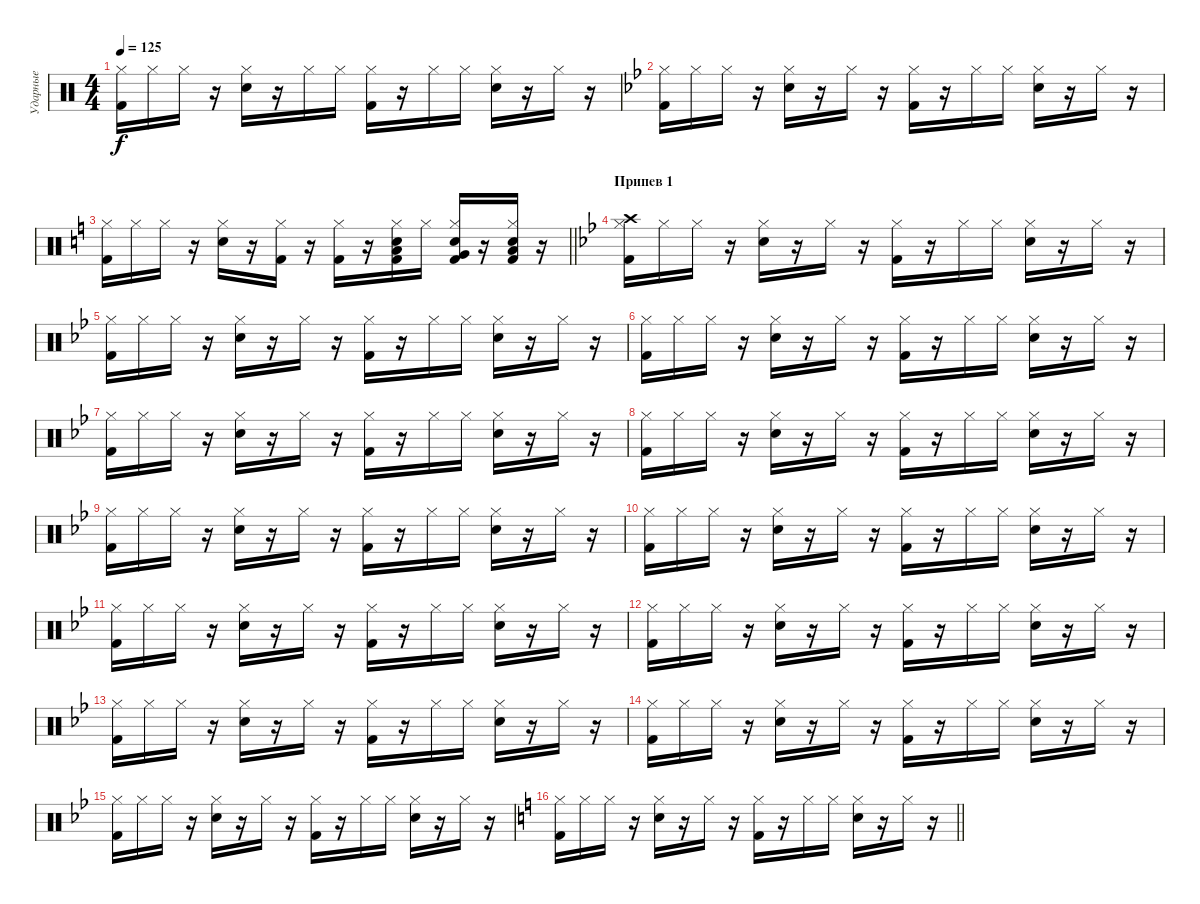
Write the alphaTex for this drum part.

\track ("Ударные" "Ударные") {instrument percussion}
\staff {score}
\articulation defaults
\ts (4 4)
\tempo 125
\clef neutral
\ks c
("Kick (hit) 2" "Hi-Hat (closed)").16{dy f} "Hi-Hat (closed)".16 "Hi-Hat (closed)".16 r.16 ("Snare (hit) 2" "Hi-Hat (closed)").16 r.16 "Hi-Hat (closed)".16 "Hi-Hat (closed)".16 ("Kick (hit) 2" "Hi-Hat (closed)").16 r.16 "Hi-Hat (closed)".16 "Hi-Hat (closed)".16 ("Snare (hit) 2" "Hi-Hat (closed)").16 r.16 "Hi-Hat (closed)".16 r.16 |
\ks bb
("Kick (hit) 2" "Hi-Hat (closed)").16 "Hi-Hat (closed)".16 "Hi-Hat (closed)".16 r.16 ("Snare (hit) 2" "Hi-Hat (closed)").16 r.16 "Hi-Hat (closed)".16 r.16 ("Kick (hit) 2" "Hi-Hat (closed)").16 r.16 "Hi-Hat (closed)".16 "Hi-Hat (closed)".16 ("Snare (hit) 2" "Hi-Hat (closed)").16 r.16 "Hi-Hat (closed)".16 r.16 |
\barLineRight lightlight
\ks c
("Kick (hit) 2" "Hi-Hat (closed)").16 "Hi-Hat (closed)".16 "Hi-Hat (closed)".16 r.16 ("Snare (hit) 2" "Hi-Hat (closed)").16 r.16 ("Kick (hit) 2" "Hi-Hat (closed)").16 r.16 ("Kick (hit) 2" "Hi-Hat (closed)").16 r.16 ("Kick (hit) 2" "Snare (hit) 2" "Low Floor Tom (hit)" "Hi-Hat (closed)").16 "Hi-Hat (closed)".16 ("Kick (hit) 2" "Snare (hit) 2" "Very Low Tom (hit)" "Hi-Hat (closed)").16 r.16 ("Kick (hit) 2" "Snare (hit) 2" "Low Tom (hit)" "Hi-Hat (closed)").16 r.16 |
\section ("" "Припев 1")
\ks bb
("Kick (hit) 2" "Crash high (hit)" "Hi-Hat (closed)").16 "Hi-Hat (closed)".16 "Hi-Hat (closed)".16 r.16 ("Snare (hit) 2" "Hi-Hat (closed)").16 r.16 "Hi-Hat (closed)".16 r.16 ("Kick (hit) 2" "Hi-Hat (closed)").16 r.16 "Hi-Hat (closed)".16 "Hi-Hat (closed)".16 ("Snare (hit) 2" "Hi-Hat (closed)").16 r.16 "Hi-Hat (closed)".16 r.16 |
("Kick (hit) 2" "Hi-Hat (closed)").16 "Hi-Hat (closed)".16 "Hi-Hat (closed)".16 r.16 ("Snare (hit) 2" "Hi-Hat (closed)").16 r.16 "Hi-Hat (closed)".16 r.16 ("Kick (hit) 2" "Hi-Hat (closed)").16 r.16 "Hi-Hat (closed)".16 "Hi-Hat (closed)".16 ("Snare (hit) 2" "Hi-Hat (closed)").16 r.16 "Hi-Hat (closed)".16 r.16 |
("Kick (hit) 2" "Hi-Hat (closed)").16 "Hi-Hat (closed)".16 "Hi-Hat (closed)".16 r.16 ("Snare (hit) 2" "Hi-Hat (closed)").16 r.16 "Hi-Hat (closed)".16 r.16 ("Kick (hit) 2" "Hi-Hat (closed)").16 r.16 "Hi-Hat (closed)".16 "Hi-Hat (closed)".16 ("Snare (hit) 2" "Hi-Hat (closed)").16 r.16 "Hi-Hat (closed)".16 r.16 |
("Kick (hit) 2" "Hi-Hat (closed)").16 "Hi-Hat (closed)".16 "Hi-Hat (closed)".16 r.16 ("Snare (hit) 2" "Hi-Hat (closed)").16 r.16 "Hi-Hat (closed)".16 r.16 ("Kick (hit) 2" "Hi-Hat (closed)").16 r.16 "Hi-Hat (closed)".16 "Hi-Hat (closed)".16 ("Snare (hit) 2" "Hi-Hat (closed)").16 r.16 "Hi-Hat (closed)".16 r.16 |
("Kick (hit) 2" "Hi-Hat (closed)").16 "Hi-Hat (closed)".16 "Hi-Hat (closed)".16 r.16 ("Snare (hit) 2" "Hi-Hat (closed)").16 r.16 "Hi-Hat (closed)".16 r.16 ("Kick (hit) 2" "Hi-Hat (closed)").16 r.16 "Hi-Hat (closed)".16 "Hi-Hat (closed)".16 ("Snare (hit) 2" "Hi-Hat (closed)").16 r.16 "Hi-Hat (closed)".16 r.16 |
("Kick (hit) 2" "Hi-Hat (closed)").16 "Hi-Hat (closed)".16 "Hi-Hat (closed)".16 r.16 ("Snare (hit) 2" "Hi-Hat (closed)").16 r.16 "Hi-Hat (closed)".16 r.16 ("Kick (hit) 2" "Hi-Hat (closed)").16 r.16 "Hi-Hat (closed)".16 "Hi-Hat (closed)".16 ("Snare (hit) 2" "Hi-Hat (closed)").16 r.16 "Hi-Hat (closed)".16 r.16 |
("Kick (hit) 2" "Hi-Hat (closed)").16 "Hi-Hat (closed)".16 "Hi-Hat (closed)".16 r.16 ("Snare (hit) 2" "Hi-Hat (closed)").16 r.16 "Hi-Hat (closed)".16 r.16 ("Kick (hit) 2" "Hi-Hat (closed)").16 r.16 "Hi-Hat (closed)".16 "Hi-Hat (closed)".16 ("Snare (hit) 2" "Hi-Hat (closed)").16 r.16 "Hi-Hat (closed)".16 r.16 |
("Kick (hit) 2" "Hi-Hat (closed)").16 "Hi-Hat (closed)".16 "Hi-Hat (closed)".16 r.16 ("Snare (hit) 2" "Hi-Hat (closed)").16 r.16 "Hi-Hat (closed)".16 r.16 ("Kick (hit) 2" "Hi-Hat (closed)").16 r.16 "Hi-Hat (closed)".16 "Hi-Hat (closed)".16 ("Snare (hit) 2" "Hi-Hat (closed)").16 r.16 "Hi-Hat (closed)".16 r.16 |
("Kick (hit) 2" "Hi-Hat (closed)").16 "Hi-Hat (closed)".16 "Hi-Hat (closed)".16 r.16 ("Snare (hit) 2" "Hi-Hat (closed)").16 r.16 "Hi-Hat (closed)".16 r.16 ("Kick (hit) 2" "Hi-Hat (closed)").16 r.16 "Hi-Hat (closed)".16 "Hi-Hat (closed)".16 ("Snare (hit) 2" "Hi-Hat (closed)").16 r.16 "Hi-Hat (closed)".16 r.16 |
("Kick (hit) 2" "Hi-Hat (closed)").16 "Hi-Hat (closed)".16 "Hi-Hat (closed)".16 r.16 ("Snare (hit) 2" "Hi-Hat (closed)").16 r.16 "Hi-Hat (closed)".16 r.16 ("Kick (hit) 2" "Hi-Hat (closed)").16 r.16 "Hi-Hat (closed)".16 "Hi-Hat (closed)".16 ("Snare (hit) 2" "Hi-Hat (closed)").16 r.16 "Hi-Hat (closed)".16 r.16 |
("Kick (hit) 2" "Hi-Hat (closed)").16 "Hi-Hat (closed)".16 "Hi-Hat (closed)".16 r.16 ("Snare (hit) 2" "Hi-Hat (closed)").16 r.16 "Hi-Hat (closed)".16 r.16 ("Kick (hit) 2" "Hi-Hat (closed)").16 r.16 "Hi-Hat (closed)".16 "Hi-Hat (closed)".16 ("Snare (hit) 2" "Hi-Hat (closed)").16 r.16 "Hi-Hat (closed)".16 r.16 |
("Kick (hit) 2" "Hi-Hat (closed)").16 "Hi-Hat (closed)".16 "Hi-Hat (closed)".16 r.16 ("Snare (hit) 2" "Hi-Hat (closed)").16 r.16 "Hi-Hat (closed)".16 r.16 ("Kick (hit) 2" "Hi-Hat (closed)").16 r.16 "Hi-Hat (closed)".16 "Hi-Hat (closed)".16 ("Snare (hit) 2" "Hi-Hat (closed)").16 r.16 "Hi-Hat (closed)".16 r.16 |
\barLineRight lightlight
\ks c
("Kick (hit) 2" "Hi-Hat (closed)").16 "Hi-Hat (closed)".16 "Hi-Hat (closed)".16 r.16 ("Snare (hit) 2" "Hi-Hat (closed)").16 r.16 "Hi-Hat (closed)".16 r.16 ("Kick (hit) 2" "Hi-Hat (closed)").16 r.16 "Hi-Hat (closed)".16 "Hi-Hat (closed)".16 ("Snare (hit) 2" "Hi-Hat (closed)").16 r.16 "Hi-Hat (closed)".16 r.16
